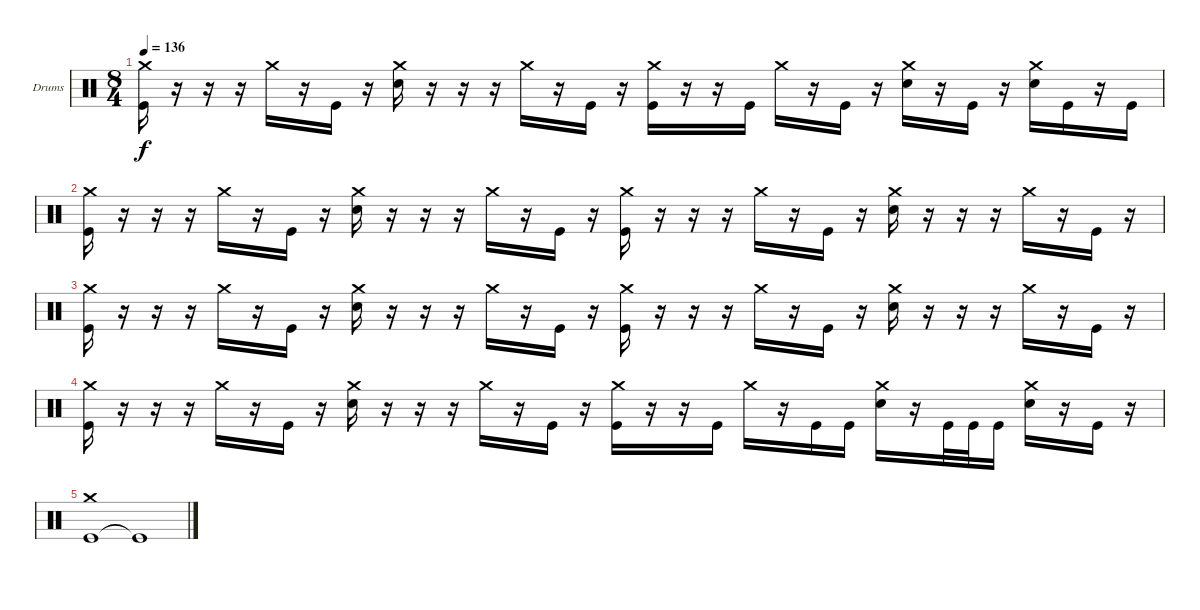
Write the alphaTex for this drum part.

\defaultSystemsLayout 4
\bracketExtendMode groupsimilarinstruments
\firstSystemTrackNameOrientation horizontal
\otherSystemsTrackNameOrientation horizontal
\track ("Drumkit" "Drums") {instrument percussion}
\staff {score}
\articulation defaults
\ts (8 4)
\tempo 136
\clef neutral
\ks c
("Kick (hit)" "Crash medium (hit)").16{dy f} r.16 r.16 r.16 "Crash medium (hit)".16 r.16 "Kick (hit)".16 r.16 ("Snare (hit) 2" "Crash medium (hit)").16 r.16 r.16 r.16 "Crash medium (hit)".16 r.16 "Kick (hit)".16 r.16 ("Kick (hit)" "Crash medium (hit)").16 r.16 r.16 "Kick (hit)".16 "Crash medium (hit)".16 r.16 "Kick (hit)".16 r.16 ("Snare (hit) 2" "Crash medium (hit)").16 r.16 "Kick (hit)".16 r.16 ("Crash medium (hit)" "Snare (hit) 2").16 "Kick (hit)".16 r.16 "Kick (hit)".16 |
("Kick (hit)" "Crash medium (hit)").16 r.16 r.16 r.16 "Crash medium (hit)".16 r.16 "Kick (hit)".16 r.16 ("Snare (hit) 2" "Crash medium (hit)").16 r.16 r.16 r.16 "Crash medium (hit)".16 r.16 "Kick (hit)".16 r.16 ("Kick (hit)" "Crash medium (hit)").16 r.16 r.16 r.16 "Crash medium (hit)".16 r.16 "Kick (hit)".16 r.16 ("Snare (hit) 2" "Crash medium (hit)").16 r.16 r.16 r.16 "Crash medium (hit)".16 r.16 "Kick (hit)".16 r.16 |
("Kick (hit)" "Crash medium (hit)").16 r.16 r.16 r.16 "Crash medium (hit)".16 r.16 "Kick (hit)".16 r.16 ("Snare (hit) 2" "Crash medium (hit)").16 r.16 r.16 r.16 "Crash medium (hit)".16 r.16 "Kick (hit)".16 r.16 ("Kick (hit)" "Crash medium (hit)").16 r.16 r.16 r.16 "Crash medium (hit)".16 r.16 "Kick (hit)".16 r.16 ("Snare (hit) 2" "Crash medium (hit)").16 r.16 r.16 r.16 "Crash medium (hit)".16 r.16 "Kick (hit)".16 r.16 |
("Kick (hit)" "Crash medium (hit)").16 r.16 r.16 r.16 "Crash medium (hit)".16 r.16 "Kick (hit)".16 r.16 ("Snare (hit) 2" "Crash medium (hit)").16 r.16 r.16 r.16 "Crash medium (hit)".16 r.16 "Kick (hit)".16 r.16 ("Kick (hit)" "Crash medium (hit)").16 r.16 r.16 "Kick (hit)".16 "Crash medium (hit)".16 r.16 "Kick (hit)".16 "Kick (hit)".16 ("Snare (hit) 2" "Crash medium (hit)").16 r.16 "Kick (hit)".32 "Kick (hit)".32 "Kick (hit)".16 ("Crash medium (hit)" "Snare (hit) 2").16 r.16 "Kick (hit)".16 r.16 |
("Kick (hit)" "Crash medium (hit)").1 "Kick (hit)"{t}.1
